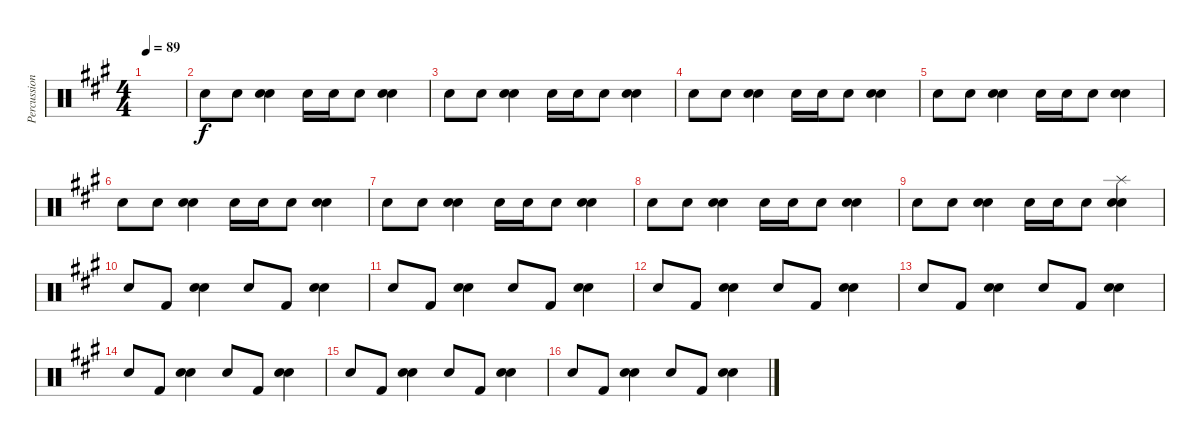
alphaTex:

\track ("Percussions" "Percussion") {instrument percussion}
\staff {score}
\articulation defaults
\ts (4 4)
\tempo 89
\clef neutral
\ks a
|
"Electric Snare (hit)".8 "Electric Snare (hit)".8 ("Snare (hit) 2" "Electric Snare (hit)").4 "Electric Snare (hit)".16 "Electric Snare (hit)".16 "Electric Snare (hit)".8 ("Snare (hit) 2" "Electric Snare (hit)").4 |
"Electric Snare (hit)".8 "Electric Snare (hit)".8 ("Snare (hit) 2" "Electric Snare (hit)").4 "Electric Snare (hit)".16 "Electric Snare (hit)".16 "Electric Snare (hit)".8 ("Snare (hit) 2" "Electric Snare (hit)").4 |
"Electric Snare (hit)".8 "Electric Snare (hit)".8 ("Snare (hit) 2" "Electric Snare (hit)").4 "Electric Snare (hit)".16 "Electric Snare (hit)".16 "Electric Snare (hit)".8 ("Snare (hit) 2" "Electric Snare (hit)").4 |
"Electric Snare (hit)".8 "Electric Snare (hit)".8 ("Snare (hit) 2" "Electric Snare (hit)").4 "Electric Snare (hit)".16 "Electric Snare (hit)".16 "Electric Snare (hit)".8 ("Snare (hit) 2" "Electric Snare (hit)").4 |
"Electric Snare (hit)".8 "Electric Snare (hit)".8 ("Snare (hit) 2" "Electric Snare (hit)").4 "Electric Snare (hit)".16 "Electric Snare (hit)".16 "Electric Snare (hit)".8 ("Snare (hit) 2" "Electric Snare (hit)").4 |
"Electric Snare (hit)".8 "Electric Snare (hit)".8 ("Snare (hit) 2" "Electric Snare (hit)").4 "Electric Snare (hit)".16 "Electric Snare (hit)".16 "Electric Snare (hit)".8 ("Snare (hit) 2" "Electric Snare (hit)").4 |
"Electric Snare (hit)".8 "Electric Snare (hit)".8 ("Snare (hit) 2" "Electric Snare (hit)").4 "Electric Snare (hit)".16 "Electric Snare (hit)".16 "Electric Snare (hit)".8 ("Snare (hit) 2" "Electric Snare (hit)").4 |
"Electric Snare (hit)".8 "Electric Snare (hit)".8 ("Snare (hit) 2" "Electric Snare (hit)").4 "Electric Snare (hit)".16 "Electric Snare (hit)".16 "Electric Snare (hit)".8 ("Snare (hit) 2" "Electric Snare (hit)" "Splash (hit)").4 |
"Electric Snare (hit)".8 "Kick (hit) 2".8 ("Snare (hit) 2" "Electric Snare (hit)").4 "Electric Snare (hit)".8 "Kick (hit) 2".8 ("Snare (hit) 2" "Electric Snare (hit)").4 |
"Electric Snare (hit)".8 "Kick (hit) 2".8 ("Snare (hit) 2" "Electric Snare (hit)").4 "Electric Snare (hit)".8 "Kick (hit) 2".8 ("Snare (hit) 2" "Electric Snare (hit)").4 |
"Electric Snare (hit)".8 "Kick (hit) 2".8 ("Snare (hit) 2" "Electric Snare (hit)").4 "Electric Snare (hit)".8 "Kick (hit) 2".8 ("Snare (hit) 2" "Electric Snare (hit)").4 |
"Electric Snare (hit)".8 "Kick (hit) 2".8 ("Snare (hit) 2" "Electric Snare (hit)").4 "Electric Snare (hit)".8 "Kick (hit) 2".8 ("Snare (hit) 2" "Electric Snare (hit)").4 |
"Electric Snare (hit)".8 "Kick (hit) 2".8 ("Snare (hit) 2" "Electric Snare (hit)").4 "Electric Snare (hit)".8 "Kick (hit) 2".8 ("Snare (hit) 2" "Electric Snare (hit)").4 |
"Electric Snare (hit)".8 "Kick (hit) 2".8 ("Snare (hit) 2" "Electric Snare (hit)").4 "Electric Snare (hit)".8 "Kick (hit) 2".8 ("Snare (hit) 2" "Electric Snare (hit)").4 |
"Electric Snare (hit)".8 "Kick (hit) 2".8 ("Snare (hit) 2" "Electric Snare (hit)").4 "Electric Snare (hit)".8 "Kick (hit) 2".8 ("Snare (hit) 2" "Electric Snare (hit)").4
